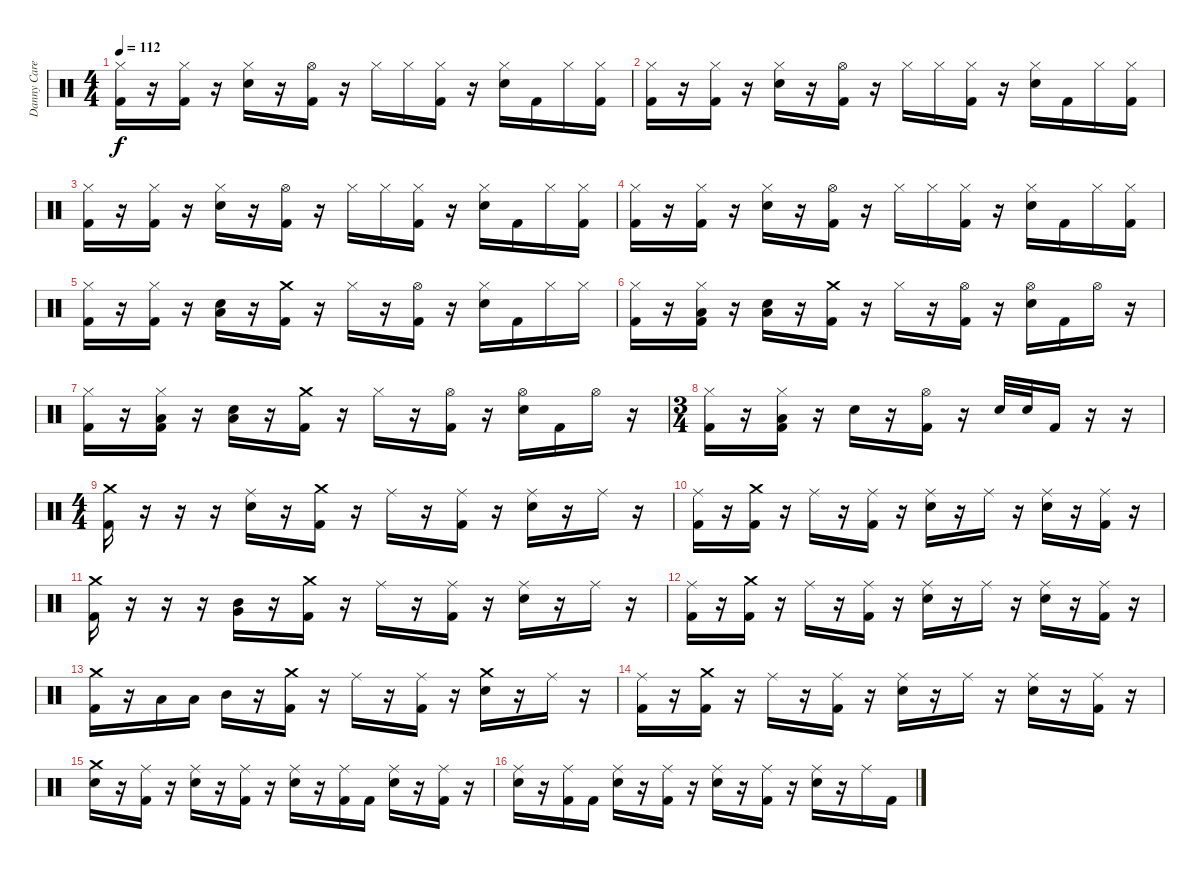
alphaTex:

\track ("Danny Carey" "Danny Care") {instrument percussion}
\staff {score}
\articulation defaults
\ts (4 4)
\tempo 112
\clef neutral
\ks c
("Hi-Hat (closed)" "Kick (hit) 2").16{dy f} r.16 ("Hi-Hat (closed)" "Kick (hit) 2").16 r.16 ("Hi-Hat (closed)" "Snare (hit) 2").16 r.16 ("Hi-Hat (open)" "Kick (hit) 2").16 r.16 "Hi-Hat (closed)".16 "Hi-Hat (closed)".16 ("Hi-Hat (closed)" "Kick (hit) 2").16 r.16 ("Hi-Hat (closed)" "Snare (hit) 2").16 "Kick (hit) 2".16 "Hi-Hat (closed)".16 ("Hi-Hat (closed)" "Kick (hit) 2").16 |
("Hi-Hat (closed)" "Kick (hit) 2").16 r.16 ("Hi-Hat (closed)" "Kick (hit) 2").16 r.16 ("Hi-Hat (closed)" "Snare (hit) 2").16 r.16 ("Hi-Hat (open)" "Kick (hit) 2").16 r.16 "Hi-Hat (closed)".16 "Hi-Hat (closed)".16 ("Hi-Hat (closed)" "Kick (hit) 2").16 r.16 ("Hi-Hat (closed)" "Snare (hit) 2").16 "Kick (hit) 2".16 "Hi-Hat (closed)".16 ("Hi-Hat (closed)" "Kick (hit) 2").16 |
("Hi-Hat (closed)" "Kick (hit) 2").16 r.16 ("Hi-Hat (closed)" "Kick (hit) 2").16 r.16 ("Hi-Hat (closed)" "Snare (hit) 2").16 r.16 ("Hi-Hat (open)" "Kick (hit) 2").16 r.16 "Hi-Hat (closed)".16 "Hi-Hat (closed)".16 ("Hi-Hat (closed)" "Kick (hit) 2").16 r.16 ("Hi-Hat (closed)" "Snare (hit) 2").16 "Kick (hit) 2".16 "Hi-Hat (closed)".16 ("Hi-Hat (closed)" "Kick (hit) 2").16 |
("Hi-Hat (closed)" "Kick (hit) 2").16 r.16 ("Hi-Hat (closed)" "Kick (hit) 2").16 r.16 ("Hi-Hat (closed)" "Snare (hit) 2").16 r.16 ("Hi-Hat (open)" "Kick (hit) 2").16 r.16 "Hi-Hat (closed)".16 "Hi-Hat (closed)".16 ("Hi-Hat (closed)" "Kick (hit) 2").16 r.16 ("Hi-Hat (closed)" "Snare (hit) 2").16 "Kick (hit) 2".16 "Hi-Hat (closed)".16 ("Hi-Hat (closed)" "Kick (hit) 2").16 |
("Hi-Hat (closed)" "Kick (hit) 2").16 r.16 ("Hi-Hat (closed)" "Kick (hit) 2").16 r.16 ("Snare (hit) 2" "Low Floor Tom (hit)").16 r.16 ("Crash medium (hit)" "Kick (hit) 2").16 r.16 "Hi-Hat (closed)".16 r.16 ("Hi-Hat (open)" "Kick (hit) 2").16 r.16 ("Hi-Hat (closed)" "Snare (hit) 2").16 "Kick (hit) 2".16 "Hi-Hat (closed)".16 "Hi-Hat (closed)".16 |
("Hi-Hat (closed)" "Kick (hit) 2").16 r.16 ("Hi-Hat (closed)" "Low Floor Tom (hit)" "Kick (hit) 2").16 r.16 ("Snare (hit) 2" "Low Floor Tom (hit)").16 r.16 ("Crash medium (hit)" "Kick (hit) 2").16 r.16 "Hi-Hat (closed)".16 r.16 ("Hi-Hat (open)" "Kick (hit) 2").16 r.16 ("Hi-Hat (open)" "Snare (hit) 2").16 "Kick (hit) 2".16 "Hi-Hat (open)".16 r.16 |
("Hi-Hat (closed)" "Kick (hit) 2").16 r.16 ("Hi-Hat (closed)" "Low Floor Tom (hit)" "Kick (hit) 2").16 r.16 ("Snare (hit) 2" "Low Floor Tom (hit)").16 r.16 ("Crash medium (hit)" "Kick (hit) 2").16 r.16 "Hi-Hat (closed)".16 r.16 ("Hi-Hat (open)" "Kick (hit) 2").16 r.16 ("Hi-Hat (open)" "Snare (hit) 2").16 "Kick (hit) 2".16 "Hi-Hat (open)".16 r.16 |
\ts (3 4)
("Hi-Hat (closed)" "Kick (hit) 2").16 r.16 ("Hi-Hat (closed)" "Low Floor Tom (hit)" "Kick (hit) 2").16 r.16 "Snare (hit) 2".16 r.16 ("Hi-Hat (open)" "Kick (hit) 2").16 r.16 "Snare (hit) 2".32 "Snare (hit) 2".32 "Kick (hit) 2".16 r.16 r.16 |
\ts (4 4)
("Crash medium (hit)" "Kick (hit) 2").16 r.16 r.16 r.16 ("Ride (middle)" "Snare (hit) 2").16 r.16 ("Crash medium (hit)" "Kick (hit) 2").16 r.16 "Ride (middle)".16 r.16 ("Ride (middle)" "Kick (hit) 2").16 r.16 ("Ride (middle)" "Snare (hit) 2").16 r.16 "Ride (middle)".16 r.16 |
("Ride (middle)" "Kick (hit) 2").16 r.16 ("Crash medium (hit)" "Kick (hit) 2").16 r.16 "Ride (middle)".16 r.16 ("Ride (middle)" "Kick (hit) 2").16 r.16 ("Ride (middle)" "Snare (hit) 2").16 r.16 "Ride (middle)".16 r.16 ("Ride (middle)" "Snare (hit) 2").16 r.16 ("Ride (middle)" "Kick (hit) 2").16 r.16 |
("Crash medium (hit)" "Kick (hit) 2").16 r.16 r.16 r.16 ("Mid Tom (hit)" "Very Low Tom (hit)").16 r.16 ("Crash medium (hit)" "Kick (hit) 2").16 r.16 "Ride (middle)".16 r.16 ("Ride (middle)" "Kick (hit) 2").16 r.16 ("Ride (middle)" "Snare (hit) 2").16 r.16 "Ride (middle)".16 r.16 |
("Ride (middle)" "Kick (hit) 2").16 r.16 ("Crash medium (hit)" "Kick (hit) 2").16 r.16 "Ride (middle)".16 r.16 ("Ride (middle)" "Kick (hit) 2").16 r.16 ("Ride (middle)" "Snare (hit) 2").16 r.16 "Ride (middle)".16 r.16 ("Ride (middle)" "Snare (hit) 2").16 r.16 ("Ride (middle)" "Kick (hit) 2").16 r.16 |
("Crash medium (hit)" "Kick (hit) 2").16 r.16 "Low Tom (hit)".16 "Low Tom (hit)".16 "Mid Tom (hit)".16 r.16 ("Crash medium (hit)" "Kick (hit) 2").16 r.16 "Ride (middle)".16 r.16 ("Ride (middle)" "Kick (hit) 2").16 r.16 ("Crash medium (hit)" "Snare (hit) 2").16 r.16 "Ride (middle)".16 r.16 |
("Ride (middle)" "Kick (hit) 2").16 r.16 ("Crash medium (hit)" "Kick (hit) 2").16 r.16 "Ride (middle)".16 r.16 ("Ride (middle)" "Kick (hit) 2").16 r.16 ("Ride (middle)" "Snare (hit) 2").16 r.16 "Ride (middle)".16 r.16 ("Ride (middle)" "Snare (hit) 2").16 r.16 ("Ride (middle)" "Kick (hit) 2").16 r.16 |
("Crash medium (hit)" "Snare (hit) 2").16 r.16 ("Ride (middle)" "Kick (hit) 2").16 r.16 ("Ride (middle)" "Snare (hit) 2").16 r.16 ("Ride (middle)" "Kick (hit) 2").16 r.16 ("Ride (middle)" "Snare (hit) 2").16 r.16 ("Ride (middle)" "Kick (hit) 2").16 "Kick (hit) 2".16 ("Ride (middle)" "Snare (hit) 2").16 r.16 ("Ride (middle)" "Kick (hit) 2").16 r.16 |
("Ride (middle)" "Snare (hit) 2").16 r.16 ("Ride (middle)" "Kick (hit) 2").16 "Kick (hit) 2".16 ("Ride (middle)" "Snare (hit) 2").16 r.16 ("Ride (middle)" "Kick (hit) 2").16 r.16 ("Ride (middle)" "Snare (hit) 2").16 r.16 ("Ride (middle)" "Kick (hit) 2").16 r.16 ("Ride (middle)" "Snare (hit) 2").16 r.16 "Ride (middle)".16 "Kick (hit) 2".16
